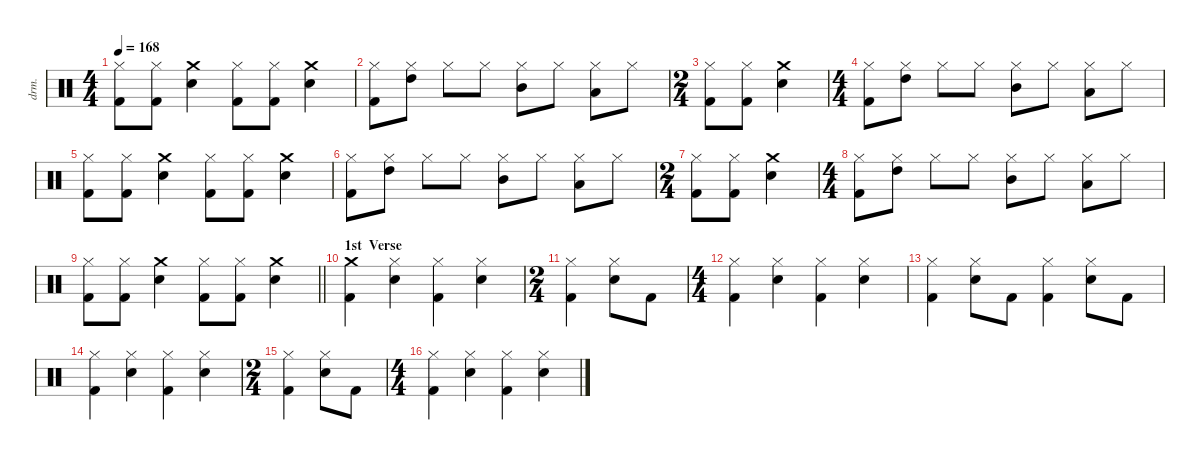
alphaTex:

\defaultSystemsLayout 4
\hideDynamics
\bracketExtendMode nobrackets
\otherSystemsTrackNameOrientation horizontal
\track ("Drums" "drm.") {instrument percussion}
\staff {score}
\articulation defaults
\ts (4 4)
\tempo 168
\clef neutral
\ks c
("Hi-Hat (closed)" "Kick (hit) 2").8{dy fff} ("Hi-Hat (closed)" "Kick (hit) 2").8 ("Snare (hit) 2" "Crash medium (hit)").4 ("Kick (hit) 2" "Hi-Hat (closed)").8 ("Kick (hit) 2" "Hi-Hat (closed)").8 ("Crash medium (hit)" "Snare (hit) 2").4 |
("Hi-Hat (closed)" "Kick (hit) 2").8 ("High Tom (hit)" "Hi-Hat (closed)").8 "Hi-Hat (closed)".8 "Hi-Hat (closed)".8 ("Mid Tom (hit)" "Hi-Hat (closed)").8 "Hi-Hat (closed)".8 ("Low Tom (hit)" "Hi-Hat (closed)").8 "Hi-Hat (closed)".8 |
\ts (2 4)
\beaming (8 2 2)
("Kick (hit) 2" "Hi-Hat (closed)").8 ("Kick (hit) 2" "Hi-Hat (closed)").8 ("Snare (hit) 2" "Crash medium (hit)").4 |
\ts (4 4)
\beaming (8 2 2 2 2)
("Hi-Hat (closed)" "Kick (hit) 2").8 ("High Tom (hit)" "Hi-Hat (closed)").8 "Hi-Hat (closed)".8 "Hi-Hat (closed)".8 ("Mid Tom (hit)" "Hi-Hat (closed)").8 "Hi-Hat (closed)".8 ("Hi-Hat (closed)" "Low Tom (hit)").8 "Hi-Hat (closed)".8 |
("Hi-Hat (closed)" "Kick (hit) 2").8 ("Hi-Hat (closed)" "Kick (hit) 2").8 ("Snare (hit) 2" "Crash medium (hit)").4 ("Kick (hit) 2" "Hi-Hat (closed)").8 ("Kick (hit) 2" "Hi-Hat (closed)").8 ("Crash medium (hit)" "Snare (hit) 2").4 |
("Hi-Hat (closed)" "Kick (hit) 2").8 ("High Tom (hit)" "Hi-Hat (closed)").8 "Hi-Hat (closed)".8 "Hi-Hat (closed)".8 ("Mid Tom (hit)" "Hi-Hat (closed)").8 "Hi-Hat (closed)".8 ("Hi-Hat (closed)" "Low Tom (hit)").8 "Hi-Hat (closed)".8 |
\ts (2 4)
\beaming (8 2 2)
("Hi-Hat (closed)" "Kick (hit) 2").8 ("Hi-Hat (closed)" "Kick (hit) 2").8 ("Crash medium (hit)" "Snare (hit) 2").4 |
\ts (4 4)
\beaming (8 2 2 2 2)
("Hi-Hat (closed)" "Kick (hit) 2").8 ("High Tom (hit)" "Hi-Hat (closed)").8 "Hi-Hat (closed)".8 "Hi-Hat (closed)".8 ("Mid Tom (hit)" "Hi-Hat (closed)").8 "Hi-Hat (closed)".8 ("Hi-Hat (closed)" "Low Tom (hit)").8 "Hi-Hat (closed)".8 |
\barLineRight lightlight
("Hi-Hat (closed)" "Kick (hit) 2").8 ("Hi-Hat (closed)" "Kick (hit) 2").8 ("Snare (hit) 2" "Crash medium (hit)").4 ("Kick (hit) 2" "Hi-Hat (closed)").8 ("Kick (hit) 2" "Hi-Hat (closed)").8 ("Crash medium (hit)" "Snare (hit) 2").4 |
\section ("" "1st  Verse")
("Kick (hit) 2" "Crash medium (hit)").4 ("Hi-Hat (closed)" "Snare (hit) 2").4 ("Hi-Hat (closed)" "Kick (hit) 2").4 ("Snare (hit) 2" "Hi-Hat (closed)").4 |
\ts (2 4)
\beaming (8 2 2)
("Hi-Hat (closed)" "Kick (hit) 2").4 ("Snare (hit) 2" "Hi-Hat (closed)").8 "Kick (hit) 2".8 |
\ts (4 4)
\beaming (8 2 2 2 2)
("Kick (hit) 2" "Hi-Hat (closed)").4 ("Snare (hit) 2" "Hi-Hat (closed)").4 ("Kick (hit) 2" "Hi-Hat (closed)").4 ("Snare (hit) 2" "Hi-Hat (closed)").4 |
("Hi-Hat (closed)" "Kick (hit) 2").4 ("Snare (hit) 2" "Hi-Hat (closed)").8 "Kick (hit) 2".8 ("Kick (hit) 2" "Hi-Hat (closed)").4 ("Hi-Hat (closed)" "Snare (hit) 2").8 "Kick (hit) 2".8 |
("Hi-Hat (closed)" "Kick (hit) 2").4 ("Hi-Hat (closed)" "Snare (hit) 2").4 ("Hi-Hat (closed)" "Kick (hit) 2").4 ("Snare (hit) 2" "Hi-Hat (closed)").4 |
\ts (2 4)
\beaming (8 2 2)
("Hi-Hat (closed)" "Kick (hit) 2").4 ("Snare (hit) 2" "Hi-Hat (closed)").8 "Kick (hit) 2".8 |
\ts (4 4)
\beaming (8 2 2 2 2)
("Kick (hit) 2" "Hi-Hat (closed)").4 ("Snare (hit) 2" "Hi-Hat (closed)").4 ("Kick (hit) 2" "Hi-Hat (closed)").4 ("Snare (hit) 2" "Hi-Hat (closed)").4
